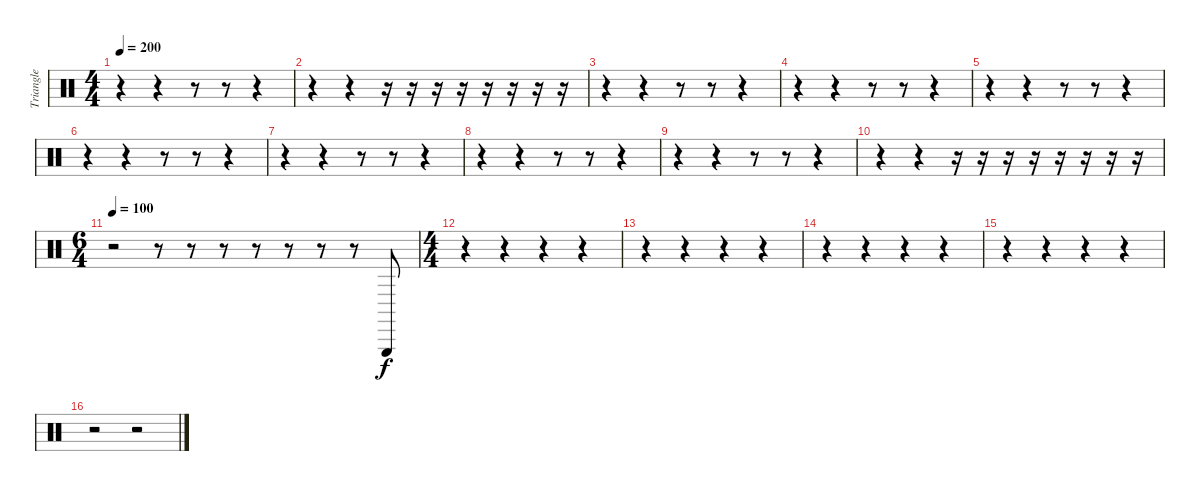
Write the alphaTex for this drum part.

\track ("Triangle" "Triangle") {instrument percussion}
\staff {score}
\articulation defaults
\ts (4 4)
\tempo 200
\clef neutral
\ks c
r.4{dy f} r.4 r.8 r.8 r.4 |
r.4 r.4 r.16 r.16 r.16 r.16 r.16 r.16 r.16 r.16 |
r.4 r.4 r.8 r.8 r.4 |
r.4 r.4 r.8 r.8 r.4 |
r.4 r.4 r.8 r.8 r.4 |
r.4 r.4 r.8 r.8 r.4 |
r.4 r.4 r.8 r.8 r.4 |
r.4 r.4 r.8 r.8 r.4 |
r.4 r.4 r.8 r.8 r.4 |
r.4 r.4 r.16 r.16 r.16 r.16 r.16 r.16 r.16 r.16 |
\ts (6 4)
\tempo 100
r.2 r.8 r.8 r.8 r.8 r.8 r.8 r.8 "Triangle (hit)".8 |
\ts (4 4)
r.4 r.4 r.4 r.4 |
r.4 r.4 r.4 r.4 |
r.4 r.4 r.4 r.4 |
r.4 r.4 r.4 r.4 |
r.2 r.2
